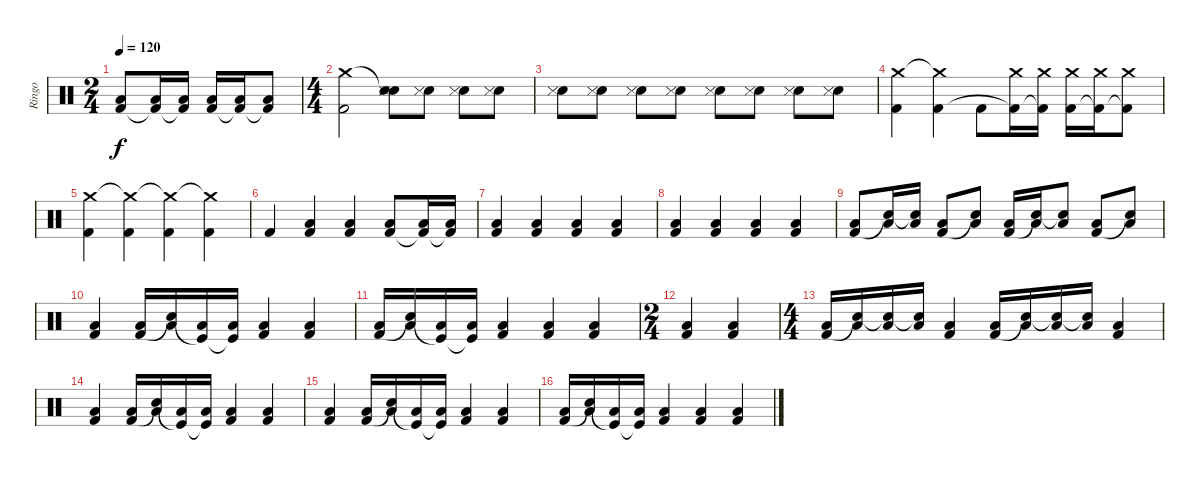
\track ("Ringo" "Ringo") {instrument percussion}
\staff {score}
\articulation defaults
\ts (2 4)
\tempo 120
\clef neutral
\ks c
("Low Floor Tom (hit)" "Kick (hit) 2").8{dy f} ("Low Floor Tom (hit)" "Kick (hit) 2"{t}).16 ("Low Floor Tom (hit)" "Kick (hit) 2"{t}).16 ("Low Floor Tom (hit)" "Kick (hit) 2").16 ("Low Floor Tom (hit)" "Kick (hit) 2"{t}).16 ("Low Floor Tom (hit)" "Kick (hit) 2"{t}).8 |
\ts (4 4)
("Crash medium (hit)" "Kick (hit) 2").2 ("Snare (hit)"{t} "Snare (hit) 2" "Snare (side stick) 3").8 ("Snare (hit) 2" "Snare (side stick) 3").8 ("Snare (hit) 2" "Snare (side stick) 3").8 ("Snare (hit) 2" "Snare (side stick) 3").8 |
("Snare (hit) 2" "Snare (side stick) 3").8 ("Snare (hit) 2" "Snare (side stick) 3").8 ("Snare (hit) 2" "Snare (side stick) 3").8 ("Snare (hit) 2" "Snare (side stick) 3").8 ("Snare (hit) 2" "Snare (side stick) 3").8 ("Snare (hit) 2" "Snare (side stick) 3").8 ("Snare (hit) 2" "Snare (side stick) 3").8 ("Snare (hit) 2" "Snare (side stick) 3").8 |
("Crash medium (hit)" "Kick (hit) 2").4 ("Crash medium (hit)"{t} "Kick (hit) 2").4 "Kick (hit) 2".8 ("Crash medium (hit)" "Kick (hit) 2"{t}).16 ("Crash medium (hit)" "Kick (hit) 2"{t}).16 ("Crash medium (hit)" "Kick (hit) 2").16 ("Crash medium (hit)" "Kick (hit) 2"{t}).16 ("Crash medium (hit)" "Kick (hit) 2"{t}).8 |
("Crash medium (hit)" "Kick (hit) 2").4 ("Crash medium (hit)"{t} "Kick (hit) 2").4 ("Crash medium (hit)"{t} "Kick (hit) 2").4 ("Crash medium (hit)"{t} "Kick (hit) 2").4 |
"Kick (hit) 2".4 ("Low Floor Tom (hit)" "Kick (hit) 2").4 ("Low Floor Tom (hit)" "Kick (hit) 2").4 ("Low Floor Tom (hit)" "Kick (hit) 2").8 ("Low Floor Tom (hit)" "Kick (hit) 2"{t}).16 ("Low Floor Tom (hit)" "Kick (hit) 2"{t}).16 |
("Low Floor Tom (hit)" "Kick (hit) 2").4 ("Low Floor Tom (hit)" "Kick (hit) 2").4 ("Low Floor Tom (hit)" "Kick (hit) 2").4 ("Low Floor Tom (hit)" "Kick (hit) 2").4 |
("Low Floor Tom (hit)" "Kick (hit) 2").4 ("Low Floor Tom (hit)" "Kick (hit) 2").4 ("Low Floor Tom (hit)" "Kick (hit) 2").4 ("Low Floor Tom (hit)" "Kick (hit) 2").4 |
("Low Floor Tom (hit)" "Kick (hit) 2").8 ("Low Floor Tom (hit)" "Snare (hit)"{t}).16 ("Low Floor Tom (hit)" "Snare (hit)"{t}).16 ("Low Floor Tom (hit)" "Kick (hit) 2").8 ("Low Floor Tom (hit)" "Snare (hit)"{t}).8 ("Low Floor Tom (hit)" "Kick (hit) 2").16 ("Low Floor Tom (hit)" "Snare (hit)"{t}).16 ("Low Floor Tom (hit)" "Snare (hit)"{t}).8 ("Low Floor Tom (hit)" "Kick (hit) 2").8 ("Low Floor Tom (hit)" "Snare (hit)"{t}).8 |
("Low Floor Tom (hit)" "Kick (hit) 2").4 ("Low Floor Tom (hit)" "Kick (hit) 2").16 ("Low Floor Tom (hit)" "Snare (hit)"{t}).16 ("Low Floor Tom (hit)" "Kick (hit)"{t}).16 ("Low Floor Tom (hit)" "Kick (hit)"{t}).16 ("Low Floor Tom (hit)" "Kick (hit) 2").4 ("Low Floor Tom (hit)" "Kick (hit) 2").4 |
("Low Floor Tom (hit)" "Kick (hit) 2").16 ("Low Floor Tom (hit)" "Snare (hit)"{t}).16 ("Low Floor Tom (hit)" "Kick (hit)"{t}).16 ("Low Floor Tom (hit)" "Kick (hit)"{t}).16 ("Low Floor Tom (hit)" "Kick (hit) 2").4 ("Low Floor Tom (hit)" "Kick (hit) 2").4 ("Low Floor Tom (hit)" "Kick (hit) 2").4 |
\ts (2 4)
("Low Floor Tom (hit)" "Kick (hit) 2").4 ("Low Floor Tom (hit)" "Kick (hit) 2").4 |
\ts (4 4)
("Low Floor Tom (hit)" "Kick (hit) 2").16 ("Low Floor Tom (hit)" "Snare (hit)"{t}).16 ("Low Floor Tom (hit)" "Snare (hit)"{t}).16 ("Low Floor Tom (hit)" "Snare (hit)"{t}).16 ("Low Floor Tom (hit)" "Kick (hit) 2").4 ("Low Floor Tom (hit)" "Kick (hit) 2").16 ("Low Floor Tom (hit)" "Snare (hit)"{t}).16 ("Low Floor Tom (hit)" "Snare (hit)"{t}).16 ("Low Floor Tom (hit)" "Snare (hit)"{t}).16 ("Low Floor Tom (hit)" "Kick (hit) 2").4 |
("Low Floor Tom (hit)" "Kick (hit) 2").4 ("Low Floor Tom (hit)" "Kick (hit) 2").16 ("Low Floor Tom (hit)" "Snare (hit)"{t}).16 ("Low Floor Tom (hit)" "Kick (hit)"{t}).16 ("Low Floor Tom (hit)" "Kick (hit)"{t}).16 ("Low Floor Tom (hit)" "Kick (hit) 2").4 ("Low Floor Tom (hit)" "Kick (hit) 2").4 |
("Low Floor Tom (hit)" "Kick (hit) 2").4 ("Low Floor Tom (hit)" "Kick (hit) 2").16 ("Low Floor Tom (hit)" "Snare (hit)"{t}).16 ("Low Floor Tom (hit)" "Kick (hit)"{t}).16 ("Low Floor Tom (hit)" "Kick (hit)"{t}).16 ("Low Floor Tom (hit)" "Kick (hit) 2").4 ("Low Floor Tom (hit)" "Kick (hit) 2").4 |
("Low Floor Tom (hit)" "Kick (hit) 2").16 ("Low Floor Tom (hit)" "Snare (hit)"{t}).16 ("Low Floor Tom (hit)" "Kick (hit)"{t}).16 ("Low Floor Tom (hit)" "Kick (hit)"{t}).16 ("Low Floor Tom (hit)" "Kick (hit) 2").4 ("Low Floor Tom (hit)" "Kick (hit) 2").4 ("Low Floor Tom (hit)" "Kick (hit) 2").4
